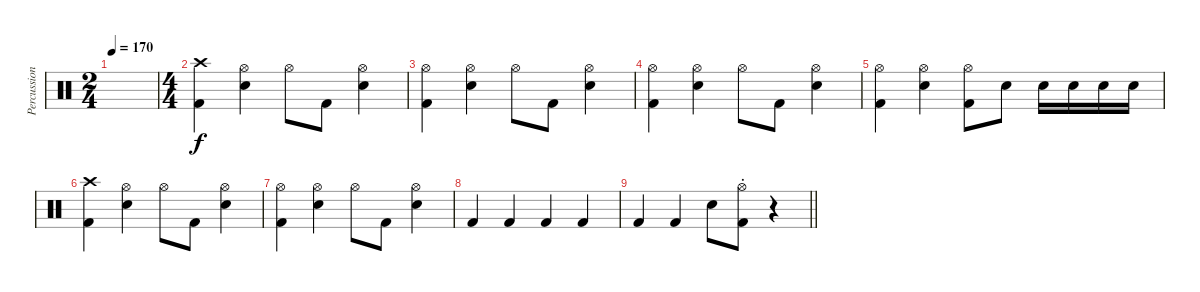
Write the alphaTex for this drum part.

\track ("Percussion" "Percussion") {instrument percussion}
\staff {score}
\articulation defaults
\ts (2 4)
\tempo 170
\clef neutral
\ks c
|
\ts (4 4)
("Crash high (hit)" "Kick (hit) 2").4 ("Hi-Hat (open)" "Snare (hit) 2").4 "Hi-Hat (open)".8 "Kick (hit) 2".8 ("Hi-Hat (open)" "Snare (hit) 2").4 |
("Hi-Hat (open)" "Kick (hit) 2").4 ("Hi-Hat (open)" "Snare (hit) 2").4 "Hi-Hat (open)".8 "Kick (hit) 2".8 ("Hi-Hat (open)" "Snare (hit) 2").4 |
("Hi-Hat (open)" "Kick (hit) 2").4 ("Hi-Hat (open)" "Snare (hit) 2").4 "Hi-Hat (open)".8 "Kick (hit) 2".8 ("Hi-Hat (open)" "Snare (hit) 2").4 |
("Hi-Hat (open)" "Kick (hit) 2").4 ("Hi-Hat (open)" "Snare (hit) 2").4 ("Hi-Hat (open)" "Kick (hit) 2").8 "Snare (hit) 2".8 "Snare (hit) 2".16 "Snare (hit) 2".16 "Snare (hit) 2".16 "Snare (hit) 2".16 |
("Crash high (hit)" "Kick (hit) 2").4 ("Hi-Hat (open)" "Snare (hit) 2").4 "Hi-Hat (open)".8 "Kick (hit) 2".8 ("Hi-Hat (open)" "Snare (hit) 2").4 |
("Hi-Hat (open)" "Kick (hit) 2").4 ("Hi-Hat (open)" "Snare (hit) 2").4 "Hi-Hat (open)".8 "Kick (hit) 2".8 ("Hi-Hat (open)" "Snare (hit) 2").4 |
"Kick (hit) 2".4 "Kick (hit) 2".4 "Kick (hit) 2".4 "Kick (hit) 2".4 |
\barLineRight lightlight "Kick (hit) 2".4 "Kick (hit) 2".4 "Snare (hit) 2".8
("Hi-Hat (open)"{st} "Kick (hit) 2").8 r.4
